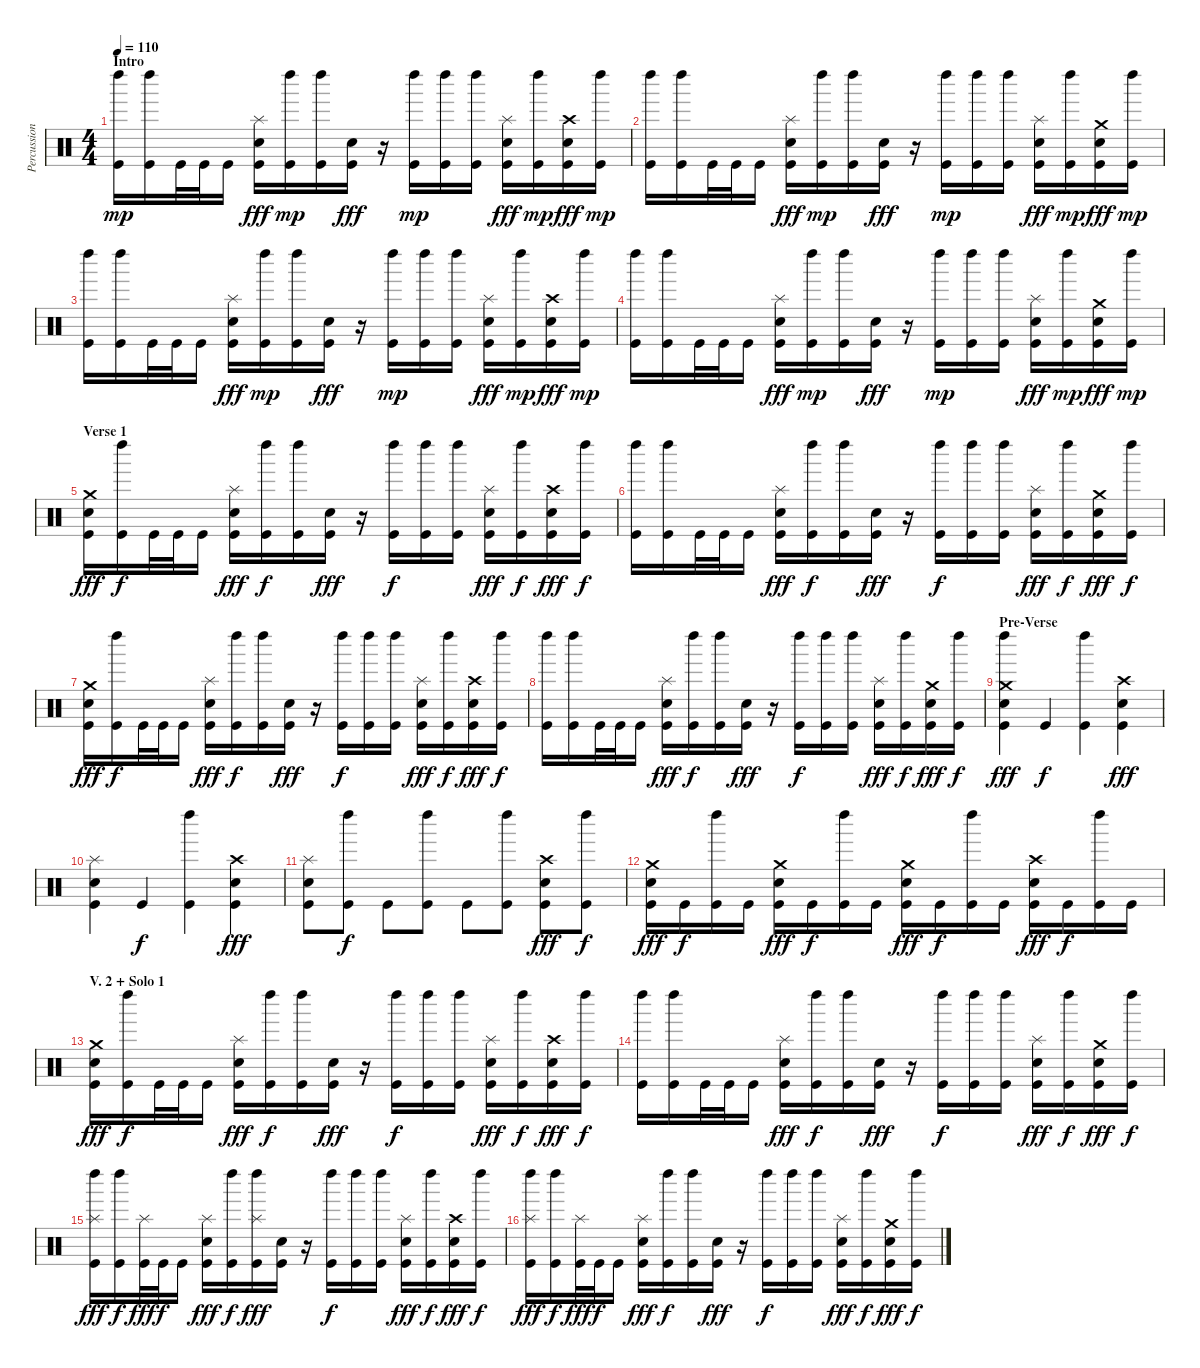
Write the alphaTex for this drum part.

\track ("Percussions" "Percussion") {instrument percussion}
\staff {score}
\articulation defaults
\ts (4 4)
\section ("" "Intro")
\tempo 110
\clef neutral
\ks c
("Kick (hit)" "Left Maraca (hit)").16{dy mp} ("Kick (hit)" "Left Maraca (hit)").16 "Kick (hit)".32 "Kick (hit)".32 "Kick (hit)".16 ("Kick (hit)" "Electric Snare (hit)" "Splash (hit)").16{dy fff} ("Kick (hit)" "Left Maraca (hit)").16{dy mp} ("Kick (hit)" "Left Maraca (hit)").16 ("Kick (hit)" "Electric Snare (hit)").16{dy fff} r.16 ("Kick (hit)" "Left Maraca (hit)").16{dy mp} ("Kick (hit)" "Left Maraca (hit)").16 ("Kick (hit)" "Left Maraca (hit)").16 ("Kick (hit)" "Electric Snare (hit)" "Splash (hit)").16{dy fff} ("Kick (hit)" "Left Maraca (hit)").16{dy mp} ("Kick (hit)" "Electric Snare (hit)" "Crash high (hit)").16{dy fff} ("Kick (hit)" "Left Maraca (hit)").16{dy mp} |
("Kick (hit)" "Left Maraca (hit)").16 ("Kick (hit)" "Left Maraca (hit)").16 "Kick (hit)".32 "Kick (hit)".32 "Kick (hit)".16 ("Kick (hit)" "Electric Snare (hit)" "Splash (hit)").16{dy fff} ("Kick (hit)" "Left Maraca (hit)").16{dy mp} ("Kick (hit)" "Left Maraca (hit)").16 ("Kick (hit)" "Electric Snare (hit)").16{dy fff} r.16 ("Kick (hit)" "Left Maraca (hit)").16{dy mp} ("Kick (hit)" "Left Maraca (hit)").16 ("Kick (hit)" "Left Maraca (hit)").16 ("Kick (hit)" "Electric Snare (hit)" "Splash (hit)").16{dy fff} ("Kick (hit)" "Left Maraca (hit)").16{dy mp} ("Kick (hit)" "Electric Snare (hit)" "Crash medium (hit)").16{dy fff} ("Kick (hit)" "Left Maraca (hit)").16{dy mp} |
("Kick (hit)" "Left Maraca (hit)").16 ("Kick (hit)" "Left Maraca (hit)").16 "Kick (hit)".32 "Kick (hit)".32 "Kick (hit)".16 ("Kick (hit)" "Electric Snare (hit)" "Splash (hit)").16{dy fff} ("Kick (hit)" "Left Maraca (hit)").16{dy mp} ("Kick (hit)" "Left Maraca (hit)").16 ("Kick (hit)" "Electric Snare (hit)").16{dy fff} r.16 ("Kick (hit)" "Left Maraca (hit)").16{dy mp} ("Kick (hit)" "Left Maraca (hit)").16 ("Kick (hit)" "Left Maraca (hit)").16 ("Kick (hit)" "Electric Snare (hit)" "Splash (hit)").16{dy fff} ("Kick (hit)" "Left Maraca (hit)").16{dy mp} ("Kick (hit)" "Electric Snare (hit)" "Crash high (hit)").16{dy fff} ("Kick (hit)" "Left Maraca (hit)").16{dy mp} |
("Kick (hit)" "Left Maraca (hit)").16 ("Kick (hit)" "Left Maraca (hit)").16 "Kick (hit)".32 "Kick (hit)".32 "Kick (hit)".16 ("Kick (hit)" "Electric Snare (hit)" "Splash (hit)").16{dy fff} ("Kick (hit)" "Left Maraca (hit)").16{dy mp} ("Kick (hit)" "Left Maraca (hit)").16 ("Kick (hit)" "Electric Snare (hit)").16{dy fff} r.16 ("Kick (hit)" "Left Maraca (hit)").16{dy mp} ("Kick (hit)" "Left Maraca (hit)").16 ("Kick (hit)" "Left Maraca (hit)").16 ("Kick (hit)" "Electric Snare (hit)" "Splash (hit)").16{dy fff} ("Kick (hit)" "Left Maraca (hit)").16{dy mp} ("Kick (hit)" "Electric Snare (hit)" "Crash medium (hit)").16{dy fff} ("Kick (hit)" "Left Maraca (hit)").16{dy mp} |
\section ("" "Verse 1")
("Kick (hit)" "Electric Snare (hit)" "Crash medium (hit)").16{dy fff} ("Kick (hit)" "Left Maraca (hit)").16{dy f} "Kick (hit)".32 "Kick (hit)".32 "Kick (hit)".16 ("Kick (hit)" "Electric Snare (hit)" "Splash (hit)").16{dy fff} ("Kick (hit)" "Left Maraca (hit)").16{dy f} ("Kick (hit)" "Left Maraca (hit)").16 ("Kick (hit)" "Electric Snare (hit)").16{dy fff} r.16 ("Kick (hit)" "Left Maraca (hit)").16{dy f} ("Kick (hit)" "Left Maraca (hit)").16 ("Kick (hit)" "Left Maraca (hit)").16 ("Kick (hit)" "Electric Snare (hit)" "Splash (hit)").16{dy fff} ("Kick (hit)" "Left Maraca (hit)").16{dy f} ("Kick (hit)" "Electric Snare (hit)" "Crash high (hit)").16{dy fff} ("Kick (hit)" "Left Maraca (hit)").16{dy f} |
("Kick (hit)" "Left Maraca (hit)").16 ("Kick (hit)" "Left Maraca (hit)").16 "Kick (hit)".32 "Kick (hit)".32 "Kick (hit)".16 ("Kick (hit)" "Electric Snare (hit)" "Splash (hit)").16{dy fff} ("Kick (hit)" "Left Maraca (hit)").16{dy f} ("Kick (hit)" "Left Maraca (hit)").16 ("Kick (hit)" "Electric Snare (hit)").16{dy fff} r.16 ("Kick (hit)" "Left Maraca (hit)").16{dy f} ("Kick (hit)" "Left Maraca (hit)").16 ("Kick (hit)" "Left Maraca (hit)").16 ("Kick (hit)" "Electric Snare (hit)" "Splash (hit)").16{dy fff} ("Kick (hit)" "Left Maraca (hit)").16{dy f} ("Kick (hit)" "Electric Snare (hit)" "Crash medium (hit)").16{dy fff} ("Kick (hit)" "Left Maraca (hit)").16{dy f} |
("Kick (hit)" "Electric Snare (hit)" "Crash medium (hit)").16{dy fff} ("Kick (hit)" "Left Maraca (hit)").16{dy f} "Kick (hit)".32 "Kick (hit)".32 "Kick (hit)".16 ("Kick (hit)" "Electric Snare (hit)" "Splash (hit)").16{dy fff} ("Kick (hit)" "Left Maraca (hit)").16{dy f} ("Kick (hit)" "Left Maraca (hit)").16 ("Kick (hit)" "Electric Snare (hit)").16{dy fff} r.16 ("Kick (hit)" "Left Maraca (hit)").16{dy f} ("Kick (hit)" "Left Maraca (hit)").16 ("Kick (hit)" "Left Maraca (hit)").16 ("Kick (hit)" "Electric Snare (hit)" "Splash (hit)").16{dy fff} ("Kick (hit)" "Left Maraca (hit)").16{dy f} ("Kick (hit)" "Electric Snare (hit)" "Crash high (hit)").16{dy fff} ("Kick (hit)" "Left Maraca (hit)").16{dy f} |
("Kick (hit)" "Left Maraca (hit)").16 ("Kick (hit)" "Left Maraca (hit)").16 "Kick (hit)".32 "Kick (hit)".32 "Kick (hit)".16 ("Kick (hit)" "Electric Snare (hit)" "Splash (hit)").16{dy fff} ("Kick (hit)" "Left Maraca (hit)").16{dy f} ("Kick (hit)" "Left Maraca (hit)").16 ("Kick (hit)" "Electric Snare (hit)").16{dy fff} r.16 ("Kick (hit)" "Left Maraca (hit)").16{dy f} ("Kick (hit)" "Left Maraca (hit)").16 ("Kick (hit)" "Left Maraca (hit)").16 ("Kick (hit)" "Electric Snare (hit)" "Splash (hit)").16{dy fff} ("Kick (hit)" "Left Maraca (hit)").16{dy f} ("Kick (hit)" "Electric Snare (hit)" "Crash medium (hit)").16{dy fff} ("Kick (hit)" "Left Maraca (hit)").16{dy f} |
\section ("" "Pre-Verse")
("Kick (hit)" "Left Maraca (hit)" "Electric Snare (hit)" "Crash medium (hit)").4{dy fff} "Kick (hit)".4{dy f} ("Kick (hit)" "Left Maraca (hit)").4 ("Kick (hit)" "Electric Snare (hit)" "Crash high (hit)").4{dy fff} |
("Kick (hit)" "Electric Snare (hit)" "Splash (hit)").4 "Kick (hit)".4{dy f} ("Kick (hit)" "Left Maraca (hit)").4 ("Kick (hit)" "Electric Snare (hit)" "Crash high (hit)").4{dy fff} |
("Kick (hit)" "Electric Snare (hit)" "Splash (hit)").8 ("Kick (hit)" "Left Maraca (hit)").8{dy f} "Kick (hit)".8 ("Kick (hit)" "Left Maraca (hit)").8 "Kick (hit)".8 ("Kick (hit)" "Left Maraca (hit)").8 ("Kick (hit)" "Electric Snare (hit)" "Crash high (hit)").8{dy fff} ("Kick (hit)" "Left Maraca (hit)").8{dy f} |
("Kick (hit)" "Electric Snare (hit)" "Crash medium (hit)").16{dy fff} "Kick (hit)".16{dy f} ("Kick (hit)" "Left Maraca (hit)").16 "Kick (hit)".16 ("Kick (hit)" "Electric Snare (hit)" "Crash medium (hit)").16{dy fff} "Kick (hit)".16{dy f} ("Kick (hit)" "Left Maraca (hit)").16 "Kick (hit)".16 ("Kick (hit)" "Electric Snare (hit)" "Crash medium (hit)").16{dy fff} "Kick (hit)".16{dy f} ("Kick (hit)" "Left Maraca (hit)").16 "Kick (hit)".16 ("Kick (hit)" "Electric Snare (hit)" "Crash high (hit)").16{dy fff} "Kick (hit)".16{dy f} ("Kick (hit)" "Left Maraca (hit)").16 "Kick (hit)".16 |
\section ("" "V. 2 + Solo 1")
("Kick (hit)" "Electric Snare (hit)" "Crash medium (hit)").16{dy fff} ("Kick (hit)" "Left Maraca (hit)").16{dy f} "Kick (hit)".32 "Kick (hit)".32 "Kick (hit)".16 ("Kick (hit)" "Electric Snare (hit)" "Splash (hit)").16{dy fff} ("Kick (hit)" "Left Maraca (hit)").16{dy f} ("Kick (hit)" "Left Maraca (hit)").16 ("Kick (hit)" "Electric Snare (hit)").16{dy fff} r.16 ("Kick (hit)" "Left Maraca (hit)").16{dy f} ("Kick (hit)" "Left Maraca (hit)").16 ("Kick (hit)" "Left Maraca (hit)").16 ("Kick (hit)" "Electric Snare (hit)" "Splash (hit)").16{dy fff} ("Kick (hit)" "Left Maraca (hit)").16{dy f} ("Kick (hit)" "Electric Snare (hit)" "Crash high (hit)").16{dy fff} ("Kick (hit)" "Left Maraca (hit)").16{dy f} |
("Kick (hit)" "Left Maraca (hit)").16 ("Kick (hit)" "Left Maraca (hit)").16 "Kick (hit)".32 "Kick (hit)".32 "Kick (hit)".16 ("Kick (hit)" "Electric Snare (hit)" "Splash (hit)").16{dy fff} ("Kick (hit)" "Left Maraca (hit)").16{dy f} ("Kick (hit)" "Left Maraca (hit)").16 ("Kick (hit)" "Electric Snare (hit)").16{dy fff} r.16 ("Kick (hit)" "Left Maraca (hit)").16{dy f} ("Kick (hit)" "Left Maraca (hit)").16 ("Kick (hit)" "Left Maraca (hit)").16 ("Kick (hit)" "Electric Snare (hit)" "Splash (hit)").16{dy fff} ("Kick (hit)" "Left Maraca (hit)").16{dy f} ("Kick (hit)" "Electric Snare (hit)" "Crash medium (hit)").16{dy fff} ("Kick (hit)" "Left Maraca (hit)").16{dy f} |
("Kick (hit)" "Left Maraca (hit)" "Splash (hit)").16{dy fff} ("Kick (hit)" "Left Maraca (hit)").16{dy f} ("Kick (hit)" "Splash (hit)").32{dy fff} "Kick (hit)".32{dy f} "Kick (hit)".16 ("Kick (hit)" "Electric Snare (hit)" "Splash (hit)").16{dy fff} ("Kick (hit)" "Left Maraca (hit)").16{dy f} ("Kick (hit)" "Left Maraca (hit)" "Splash (hit)").16{dy fff} ("Kick (hit)" "Electric Snare (hit)").16 r.16 ("Kick (hit)" "Left Maraca (hit)").16{dy f} ("Kick (hit)" "Left Maraca (hit)").16 ("Kick (hit)" "Left Maraca (hit)").16 ("Kick (hit)" "Electric Snare (hit)" "Splash (hit)").16{dy fff} ("Kick (hit)" "Left Maraca (hit)").16{dy f} ("Kick (hit)" "Electric Snare (hit)" "Crash high (hit)").16{dy fff} ("Kick (hit)" "Left Maraca (hit)").16{dy f} |
("Kick (hit)" "Left Maraca (hit)" "Splash (hit)").16{dy fff} ("Kick (hit)" "Left Maraca (hit)").16{dy f} ("Kick (hit)" "Splash (hit)").32{dy fff} "Kick (hit)".32{dy f} "Kick (hit)".16 ("Kick (hit)" "Electric Snare (hit)" "Splash (hit)").16{dy fff} ("Kick (hit)" "Left Maraca (hit)").16{dy f} ("Kick (hit)" "Left Maraca (hit)").16 ("Kick (hit)" "Electric Snare (hit)").16{dy fff} r.16 ("Kick (hit)" "Left Maraca (hit)").16{dy f} ("Kick (hit)" "Left Maraca (hit)").16 ("Kick (hit)" "Left Maraca (hit)").16 ("Kick (hit)" "Electric Snare (hit)" "Splash (hit)").16{dy fff} ("Kick (hit)" "Left Maraca (hit)").16{dy f} ("Kick (hit)" "Electric Snare (hit)" "Crash medium (hit)").16{dy fff} ("Kick (hit)" "Left Maraca (hit)").16{dy f}
